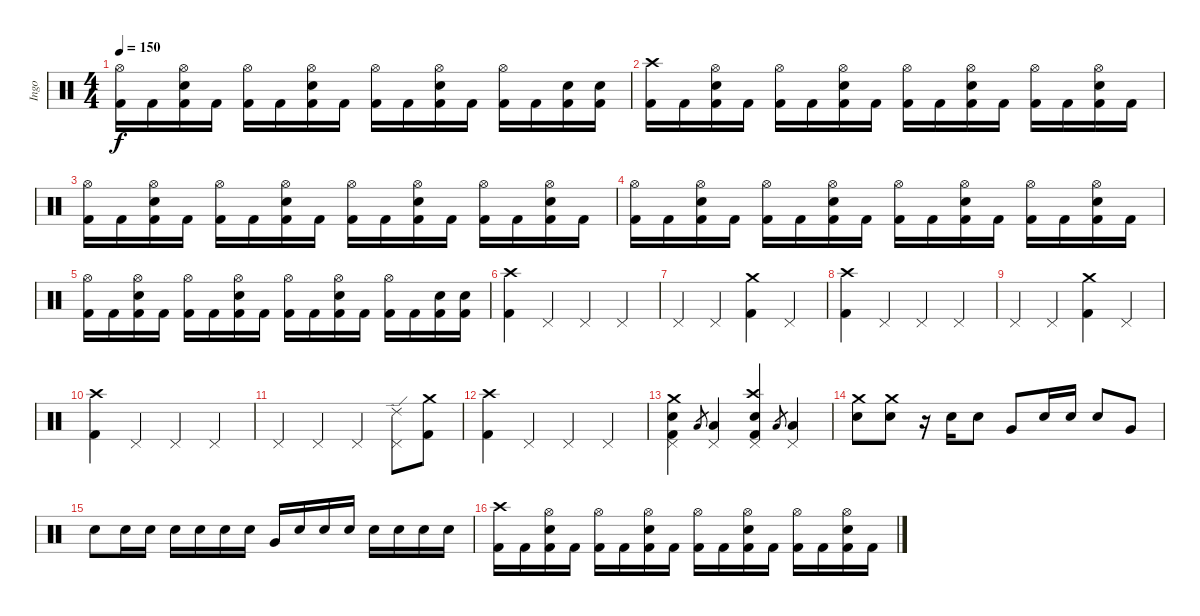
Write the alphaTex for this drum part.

\track ("Ingo" "Ingo") {instrument percussion}
\staff {score}
\articulation defaults
\ts (4 4)
\tempo 150
\clef neutral
\ks c
("Hi-Hat (open)" "Kick (hit) 2").16{dy f} "Kick (hit) 2".16 ("Hi-Hat (open)" "Electric Snare (hit)" "Kick (hit) 2").16 "Kick (hit) 2".16 ("Hi-Hat (open)" "Kick (hit) 2").16 "Kick (hit) 2".16 ("Hi-Hat (open)" "Electric Snare (hit)" "Kick (hit) 2").16 "Kick (hit) 2".16 ("Hi-Hat (open)" "Kick (hit) 2").16 "Kick (hit) 2".16 ("Hi-Hat (open)" "Electric Snare (hit)" "Kick (hit) 2").16 "Kick (hit) 2".16 ("Hi-Hat (open)" "Kick (hit) 2").16 "Kick (hit) 2".16 ("Electric Snare (hit)" "Kick (hit) 2").16 ("Electric Snare (hit)" "Kick (hit) 2").16 |
("Crash high (hit)" "Kick (hit) 2").16 "Kick (hit) 2".16 ("Hi-Hat (open)" "Electric Snare (hit)" "Kick (hit) 2").16 "Kick (hit) 2".16 ("Hi-Hat (open)" "Kick (hit) 2").16 "Kick (hit) 2".16 ("Hi-Hat (open)" "Electric Snare (hit)" "Kick (hit) 2").16 "Kick (hit) 2".16 ("Hi-Hat (open)" "Kick (hit) 2").16 "Kick (hit) 2".16 ("Hi-Hat (open)" "Electric Snare (hit)" "Kick (hit) 2").16 "Kick (hit) 2".16 ("Hi-Hat (open)" "Kick (hit) 2").16 "Kick (hit) 2".16 ("Hi-Hat (open)" "Electric Snare (hit)" "Kick (hit) 2").16 "Kick (hit) 2".16 |
("Hi-Hat (open)" "Kick (hit) 2").16 "Kick (hit) 2".16 ("Hi-Hat (open)" "Electric Snare (hit)" "Kick (hit) 2").16 "Kick (hit) 2".16 ("Hi-Hat (open)" "Kick (hit) 2").16 "Kick (hit) 2".16 ("Hi-Hat (open)" "Electric Snare (hit)" "Kick (hit) 2").16 "Kick (hit) 2".16 ("Hi-Hat (open)" "Kick (hit) 2").16 "Kick (hit) 2".16 ("Hi-Hat (open)" "Electric Snare (hit)" "Kick (hit) 2").16 "Kick (hit) 2".16 ("Hi-Hat (open)" "Kick (hit) 2").16 "Kick (hit) 2".16 ("Hi-Hat (open)" "Electric Snare (hit)" "Kick (hit) 2").16 "Kick (hit) 2".16 |
("Hi-Hat (open)" "Kick (hit) 2").16 "Kick (hit) 2".16 ("Hi-Hat (open)" "Electric Snare (hit)" "Kick (hit) 2").16 "Kick (hit) 2".16 ("Hi-Hat (open)" "Kick (hit) 2").16 "Kick (hit) 2".16 ("Hi-Hat (open)" "Electric Snare (hit)" "Kick (hit) 2").16 "Kick (hit) 2".16 ("Hi-Hat (open)" "Kick (hit) 2").16 "Kick (hit) 2".16 ("Hi-Hat (open)" "Electric Snare (hit)" "Kick (hit) 2").16 "Kick (hit) 2".16 ("Hi-Hat (open)" "Kick (hit) 2").16 "Kick (hit) 2".16 ("Hi-Hat (open)" "Electric Snare (hit)" "Kick (hit) 2").16 "Kick (hit) 2".16 |
("Hi-Hat (open)" "Kick (hit) 2").16 "Kick (hit) 2".16 ("Hi-Hat (open)" "Electric Snare (hit)" "Kick (hit) 2").16 "Kick (hit) 2".16 ("Hi-Hat (open)" "Kick (hit) 2").16 "Kick (hit) 2".16 ("Hi-Hat (open)" "Electric Snare (hit)" "Kick (hit) 2").16 "Kick (hit) 2".16 ("Hi-Hat (open)" "Kick (hit) 2").16 "Kick (hit) 2".16 ("Hi-Hat (open)" "Electric Snare (hit)" "Kick (hit) 2").16 "Kick (hit) 2".16 ("Hi-Hat (open)" "Kick (hit) 2").16 "Kick (hit) 2".16 ("Electric Snare (hit)" "Kick (hit) 2").16 ("Electric Snare (hit)" "Kick (hit) 2").16 |
("Crash high (hit)" "Kick (hit) 2").4 "Pedal Hi-Hat (hit)".4 "Pedal Hi-Hat (hit)".4 "Pedal Hi-Hat (hit)".4 |
"Pedal Hi-Hat (hit)".4 "Pedal Hi-Hat (hit)".4 ("Crash medium (hit)" "Kick (hit) 2").4 "Pedal Hi-Hat (hit)".4 |
("Crash high (hit)" "Kick (hit) 2").4 "Pedal Hi-Hat (hit)".4 "Pedal Hi-Hat (hit)".4 "Pedal Hi-Hat (hit)".4 |
"Pedal Hi-Hat (hit)".4 "Pedal Hi-Hat (hit)".4 ("Crash medium (hit)" "Kick (hit) 2").4 "Pedal Hi-Hat (hit)".4 |
("Crash high (hit)" "Kick (hit) 2").4 "Pedal Hi-Hat (hit)".4 "Pedal Hi-Hat (hit)".4 "Pedal Hi-Hat (hit)".4 |
"Pedal Hi-Hat (hit)".4 "Pedal Hi-Hat (hit)".4 "Pedal Hi-Hat (hit)".4 ("Ride (edge) 2" "Pedal Hi-Hat (hit)").8 ("Crash medium (hit)" "Kick (hit) 2").8 |
("Crash high (hit)" "Kick (hit) 2").4 "Pedal Hi-Hat (hit)".4 "Pedal Hi-Hat (hit)".4 "Pedal Hi-Hat (hit)".4 |
("Crash medium (hit)" "Electric Snare (hit)" "Pedal Hi-Hat (hit)" "Kick (hit) 2").4 "Low Floor Tom (hit)".8{gr} ("Low Floor Tom (hit)" "Pedal Hi-Hat (hit)").4 ("Crash high (hit)" "Electric Snare (hit)" "Pedal Hi-Hat (hit)" "Kick (hit) 2").4 "Low Floor Tom (hit)".8{gr} ("Low Floor Tom (hit)" "Pedal Hi-Hat (hit)").4 |
("Crash medium (hit)" "Electric Snare (hit)").8 ("Crash medium (hit)" "Electric Snare (hit)").8 r.16 "Electric Snare (hit)".16 "Electric Snare (hit)".8 "Very Low Tom (hit)".8 "Electric Snare (hit)".16 "Electric Snare (hit)".16 "Electric Snare (hit)".8 "Very Low Tom (hit)".8 |
"Electric Snare (hit)".8 "Electric Snare (hit)".16 "Electric Snare (hit)".16 "Electric Snare (hit)".16 "Electric Snare (hit)".16 "Electric Snare (hit)".16 "Electric Snare (hit)".16 "Very Low Tom (hit)".16 "Electric Snare (hit)".16 "Electric Snare (hit)".16 "Electric Snare (hit)".16 "Electric Snare (hit)".16 "Electric Snare (hit)".16 "Electric Snare (hit)".16 "Electric Snare (hit)".16 |
("Crash high (hit)" "Kick (hit) 2").16 "Kick (hit) 2".16 ("Hi-Hat (open)" "Electric Snare (hit)" "Kick (hit) 2").16 "Kick (hit) 2".16 ("Hi-Hat (open)" "Kick (hit) 2").16 "Kick (hit) 2".16 ("Hi-Hat (open)" "Electric Snare (hit)" "Kick (hit) 2").16 "Kick (hit) 2".16 ("Hi-Hat (open)" "Kick (hit) 2").16 "Kick (hit) 2".16 ("Hi-Hat (open)" "Electric Snare (hit)" "Kick (hit) 2").16 "Kick (hit) 2".16 ("Hi-Hat (open)" "Kick (hit) 2").16 "Kick (hit) 2".16 ("Hi-Hat (open)" "Electric Snare (hit)" "Kick (hit) 2").16 "Kick (hit) 2".16
